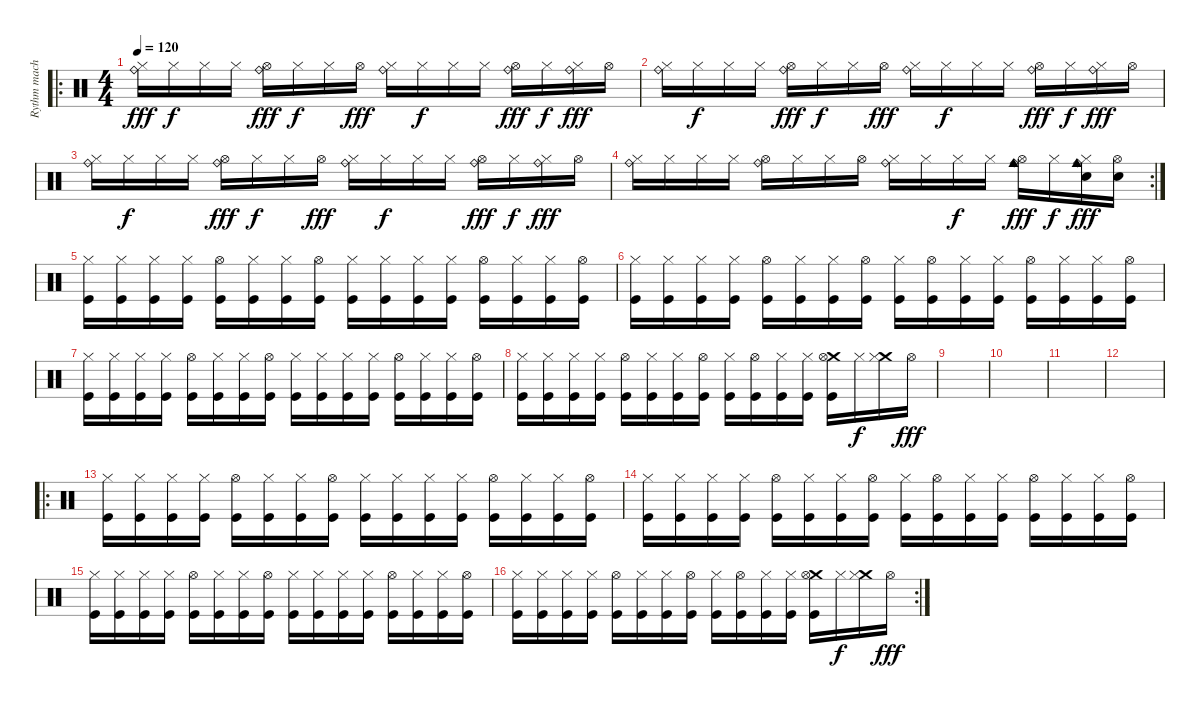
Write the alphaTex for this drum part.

\track ("Rythm machine" "Rythm mach") {instrument percussion}
\staff {score}
\articulation defaults
\ro
\ts (4 4)
\tempo 120
\clef neutral
\ks c
("Ride (bell)" "Hi-Hat (closed)").16{dy fff} "Hi-Hat (closed)".16{dy f} "Hi-Hat (closed)".16 "Hi-Hat (closed)".16 ("Ride (bell)" "Hi-Hat (open)").16{dy fff} "Hi-Hat (closed)".16{dy f} "Hi-Hat (closed)".16 "Hi-Hat (open)".16{dy fff} ("Ride (bell)" "Hi-Hat (closed)").16 "Hi-Hat (closed)".16{dy f} "Hi-Hat (closed)".16 "Hi-Hat (closed)".16 ("Ride (bell)" "Hi-Hat (open)").16{dy fff} "Hi-Hat (closed)".16{dy f} ("Ride (bell)" "Hi-Hat (closed)").16{dy fff} "Hi-Hat (open)".16 |
("Ride (bell)" "Hi-Hat (closed)").16 "Hi-Hat (closed)".16{dy f} "Hi-Hat (closed)".16 "Hi-Hat (closed)".16 ("Ride (bell)" "Hi-Hat (open)").16{dy fff} "Hi-Hat (closed)".16{dy f} "Hi-Hat (closed)".16 "Hi-Hat (open)".16{dy fff} ("Ride (bell)" "Hi-Hat (closed)").16 "Hi-Hat (closed)".16{dy f} "Hi-Hat (closed)".16 "Hi-Hat (closed)".16 ("Ride (bell)" "Hi-Hat (open)").16{dy fff} "Hi-Hat (closed)".16{dy f} ("Ride (bell)" "Hi-Hat (closed)").16{dy fff} "Hi-Hat (open)".16 |
("Ride (bell)" "Hi-Hat (closed)").16 "Hi-Hat (closed)".16{dy f} "Hi-Hat (closed)".16 "Hi-Hat (closed)".16 ("Ride (bell)" "Hi-Hat (open)").16{dy fff} "Hi-Hat (closed)".16{dy f} "Hi-Hat (closed)".16 "Hi-Hat (open)".16{dy fff} ("Ride (bell)" "Hi-Hat (closed)").16 "Hi-Hat (closed)".16{dy f} "Hi-Hat (closed)".16 "Hi-Hat (closed)".16 ("Ride (bell)" "Hi-Hat (open)").16{dy fff} "Hi-Hat (closed)".16{dy f} ("Ride (bell)" "Hi-Hat (closed)").16{dy fff} "Hi-Hat (open)".16 |
\rc 2
("Ride (bell)" "Hi-Hat (closed)").16 "Hi-Hat (closed)".16 "Hi-Hat (closed)".16 "Hi-Hat (closed)".16 ("Ride (bell)" "Hi-Hat (open)").16 "Hi-Hat (closed)".16 "Hi-Hat (closed)".16 "Hi-Hat (open)".16 ("Ride (bell)" "Hi-Hat (closed)").16 "Hi-Hat (closed)".16 "Hi-Hat (closed)".16{dy f} "Hi-Hat (closed)".16 ("Cowbell medium (hit)" "Ride (bell)" "Hi-Hat (open)").16{dy fff} "Hi-Hat (closed)".16{dy f} ("Cowbell medium (hit)" "Hand Clap (hit)" "Ride (bell)" "Hi-Hat (closed)").16{dy fff} ("Hand Clap (hit)" "Hi-Hat (open)").16 |
("Hi-Hat (closed)" "Kick (hit)").16 ("Hi-Hat (closed)" "Kick (hit)").16 ("Hi-Hat (closed)" "Kick (hit)").16 ("Hi-Hat (closed)" "Kick (hit)").16 ("Hi-Hat (open)" "Kick (hit)").16 ("Hi-Hat (closed)" "Kick (hit)").16 ("Hi-Hat (closed)" "Kick (hit)").16 ("Hi-Hat (open)" "Kick (hit)").16 ("Hi-Hat (closed)" "Kick (hit)").16 ("Hi-Hat (closed)" "Kick (hit)").16 ("Hi-Hat (closed)" "Kick (hit)").16 ("Hi-Hat (closed)" "Kick (hit)").16 ("Hi-Hat (open)" "Kick (hit)").16 ("Hi-Hat (closed)" "Kick (hit)").16 ("Hi-Hat (closed)" "Kick (hit)").16 ("Hi-Hat (open)" "Kick (hit)").16 |
("Hi-Hat (closed)" "Kick (hit)").16 ("Hi-Hat (closed)" "Kick (hit)").16 ("Hi-Hat (closed)" "Kick (hit)").16 ("Hi-Hat (closed)" "Kick (hit)").16 ("Hi-Hat (open)" "Kick (hit)").16 ("Hi-Hat (closed)" "Kick (hit)").16 ("Hi-Hat (closed)" "Kick (hit)").16 ("Hi-Hat (open)" "Kick (hit)").16 ("Hi-Hat (closed)" "Kick (hit)").16 ("Hi-Hat (open)" "Kick (hit)").16 ("Hi-Hat (closed)" "Kick (hit)").16 ("Hi-Hat (closed)" "Kick (hit)").16 ("Hi-Hat (open)" "Kick (hit)").16 ("Hi-Hat (closed)" "Kick (hit)").16 ("Hi-Hat (closed)" "Kick (hit)").16 ("Hi-Hat (open)" "Kick (hit)").16 |
("Hi-Hat (closed)" "Kick (hit)").16 ("Hi-Hat (closed)" "Kick (hit)").16 ("Hi-Hat (closed)" "Kick (hit)").16 ("Hi-Hat (closed)" "Kick (hit)").16 ("Hi-Hat (open)" "Kick (hit)").16 ("Hi-Hat (closed)" "Kick (hit)").16 ("Hi-Hat (closed)" "Kick (hit)").16 ("Hi-Hat (open)" "Kick (hit)").16 ("Hi-Hat (closed)" "Kick (hit)").16 ("Hi-Hat (closed)" "Kick (hit)").16 ("Hi-Hat (closed)" "Kick (hit)").16 ("Hi-Hat (closed)" "Kick (hit)").16 ("Hi-Hat (open)" "Kick (hit)").16 ("Hi-Hat (closed)" "Kick (hit)").16 ("Hi-Hat (closed)" "Kick (hit)").16 ("Hi-Hat (open)" "Kick (hit)").16 |
("Hi-Hat (closed)" "Kick (hit)").16 ("Hi-Hat (closed)" "Kick (hit)").16 ("Hi-Hat (closed)" "Kick (hit)").16 ("Hi-Hat (closed)" "Kick (hit)").16 ("Hi-Hat (open)" "Kick (hit)").16 ("Hi-Hat (closed)" "Kick (hit)").16 ("Hi-Hat (closed)" "Kick (hit)").16 ("Hi-Hat (open)" "Kick (hit)").16 ("Hi-Hat (closed)" "Kick (hit)").16 ("Hi-Hat (open)" "Kick (hit)").16 ("Hi-Hat (closed)" "Kick (hit)").16 ("Hi-Hat (closed)" "Kick (hit)").16 ("Crash medium (hit)" "Hi-Hat (open)" "Kick (hit)").16 "Hi-Hat (closed)".16{dy f} ("Crash medium (hit)" "Hi-Hat (closed)").16 "Hi-Hat (open)".16{dy fff} |
|
|
|
|
\ro
("Hi-Hat (closed)" "Kick (hit)").16 ("Hi-Hat (closed)" "Kick (hit)").16 ("Hi-Hat (closed)" "Kick (hit)").16 ("Hi-Hat (closed)" "Kick (hit)").16 ("Hi-Hat (open)" "Kick (hit)").16 ("Hi-Hat (closed)" "Kick (hit)").16 ("Hi-Hat (closed)" "Kick (hit)").16 ("Hi-Hat (open)" "Kick (hit)").16 ("Hi-Hat (closed)" "Kick (hit)").16 ("Hi-Hat (closed)" "Kick (hit)").16 ("Hi-Hat (closed)" "Kick (hit)").16 ("Hi-Hat (closed)" "Kick (hit)").16 ("Hi-Hat (open)" "Kick (hit)").16 ("Hi-Hat (closed)" "Kick (hit)").16 ("Hi-Hat (closed)" "Kick (hit)").16 ("Hi-Hat (open)" "Kick (hit)").16 |
("Hi-Hat (closed)" "Kick (hit)").16 ("Hi-Hat (closed)" "Kick (hit)").16 ("Hi-Hat (closed)" "Kick (hit)").16 ("Hi-Hat (closed)" "Kick (hit)").16 ("Hi-Hat (open)" "Kick (hit)").16 ("Hi-Hat (closed)" "Kick (hit)").16 ("Hi-Hat (closed)" "Kick (hit)").16 ("Hi-Hat (open)" "Kick (hit)").16 ("Hi-Hat (closed)" "Kick (hit)").16 ("Hi-Hat (open)" "Kick (hit)").16 ("Hi-Hat (closed)" "Kick (hit)").16 ("Hi-Hat (closed)" "Kick (hit)").16 ("Hi-Hat (open)" "Kick (hit)").16 ("Hi-Hat (closed)" "Kick (hit)").16 ("Hi-Hat (closed)" "Kick (hit)").16 ("Hi-Hat (open)" "Kick (hit)").16 |
("Hi-Hat (closed)" "Kick (hit)").16 ("Hi-Hat (closed)" "Kick (hit)").16 ("Hi-Hat (closed)" "Kick (hit)").16 ("Hi-Hat (closed)" "Kick (hit)").16 ("Hi-Hat (open)" "Kick (hit)").16 ("Hi-Hat (closed)" "Kick (hit)").16 ("Hi-Hat (closed)" "Kick (hit)").16 ("Hi-Hat (open)" "Kick (hit)").16 ("Hi-Hat (closed)" "Kick (hit)").16 ("Hi-Hat (closed)" "Kick (hit)").16 ("Hi-Hat (closed)" "Kick (hit)").16 ("Hi-Hat (closed)" "Kick (hit)").16 ("Hi-Hat (open)" "Kick (hit)").16 ("Hi-Hat (closed)" "Kick (hit)").16 ("Hi-Hat (closed)" "Kick (hit)").16 ("Hi-Hat (open)" "Kick (hit)").16 |
\rc 2
("Hi-Hat (closed)" "Kick (hit)").16 ("Hi-Hat (closed)" "Kick (hit)").16 ("Hi-Hat (closed)" "Kick (hit)").16 ("Hi-Hat (closed)" "Kick (hit)").16 ("Hi-Hat (open)" "Kick (hit)").16 ("Hi-Hat (closed)" "Kick (hit)").16 ("Hi-Hat (closed)" "Kick (hit)").16 ("Hi-Hat (open)" "Kick (hit)").16 ("Hi-Hat (closed)" "Kick (hit)").16 ("Hi-Hat (open)" "Kick (hit)").16 ("Hi-Hat (closed)" "Kick (hit)").16 ("Hi-Hat (closed)" "Kick (hit)").16 ("Crash medium (hit)" "Hi-Hat (open)" "Kick (hit)").16 "Hi-Hat (closed)".16{dy f} ("Crash medium (hit)" "Hi-Hat (closed)").16 "Hi-Hat (open)".16{dy fff}
